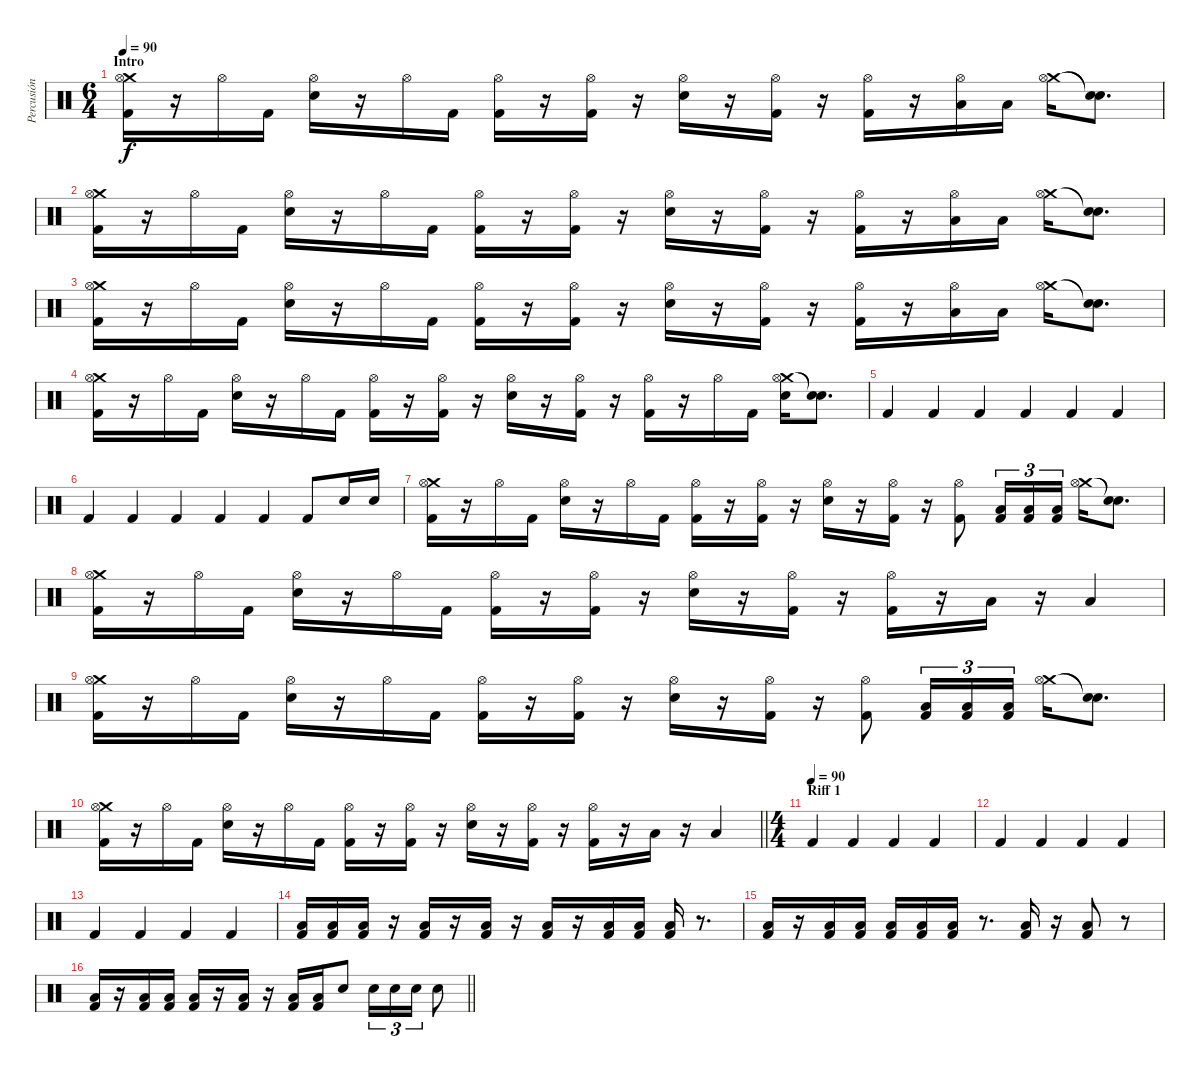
\track ("Percusión" "Percusión") {instrument percussion}
\staff {score}
\articulation defaults
\ts (6 4)
\section ("" "Intro")
\tempo 90
\clef neutral
\ks c
("Crash medium (hit)" "Hi-Hat (open)" "Kick (hit) 2").16{dy f} r.16 "Hi-Hat (open)".16 "Kick (hit) 2".16 ("Hi-Hat (open)" "Electric Snare (hit)").16 r.16 "Hi-Hat (open)".16 "Kick (hit) 2".16 ("Hi-Hat (open)" "Kick (hit) 2").16 r.16 ("Hi-Hat (open)" "Kick (hit) 2").16 r.16 ("Hi-Hat (open)" "Electric Snare (hit)").16 r.16 ("Hi-Hat (open)" "Kick (hit) 2").16 r.16 ("Hi-Hat (open)" "Kick (hit) 2").16 r.16 ("Hi-Hat (open)" "Low Tom (hit)").16 "Low Tom (hit)".16 ("Crash medium (hit)" "Hi-Hat (open)").16 ("Snare (hit)"{t} "Snare (hit)"{t}).8{d} |
("Crash medium (hit)" "Hi-Hat (open)" "Kick (hit) 2").16 r.16 "Hi-Hat (open)".16 "Kick (hit) 2".16 ("Hi-Hat (open)" "Electric Snare (hit)").16 r.16 "Hi-Hat (open)".16 "Kick (hit) 2".16 ("Hi-Hat (open)" "Kick (hit) 2").16 r.16 ("Hi-Hat (open)" "Kick (hit) 2").16 r.16 ("Hi-Hat (open)" "Electric Snare (hit)").16 r.16 ("Hi-Hat (open)" "Kick (hit) 2").16 r.16 ("Hi-Hat (open)" "Kick (hit) 2").16 r.16 ("Hi-Hat (open)" "Low Tom (hit)").16 "Low Tom (hit)".16 ("Crash medium (hit)" "Hi-Hat (open)").16 ("Snare (hit)"{t} "Snare (hit)"{t}).8{d} |
("Crash medium (hit)" "Hi-Hat (open)" "Kick (hit) 2").16 r.16 "Hi-Hat (open)".16 "Kick (hit) 2".16 ("Hi-Hat (open)" "Electric Snare (hit)").16 r.16 "Hi-Hat (open)".16 "Kick (hit) 2".16 ("Hi-Hat (open)" "Kick (hit) 2").16 r.16 ("Hi-Hat (open)" "Kick (hit) 2").16 r.16 ("Hi-Hat (open)" "Electric Snare (hit)").16 r.16 ("Hi-Hat (open)" "Kick (hit) 2").16 r.16 ("Hi-Hat (open)" "Kick (hit) 2").16 r.16 ("Hi-Hat (open)" "Low Tom (hit)").16 "Low Tom (hit)".16 ("Crash medium (hit)" "Hi-Hat (open)").16 ("Snare (hit)"{t} "Snare (hit)"{t}).8{d} |
("Crash medium (hit)" "Hi-Hat (open)" "Kick (hit) 2").16 r.16 "Hi-Hat (open)".16 "Kick (hit) 2".16 ("Hi-Hat (open)" "Electric Snare (hit)").16 r.16 "Hi-Hat (open)".16 "Kick (hit) 2".16 ("Hi-Hat (open)" "Kick (hit) 2").16 r.16 ("Hi-Hat (open)" "Kick (hit) 2").16 r.16 ("Hi-Hat (open)" "Electric Snare (hit)").16 r.16 ("Hi-Hat (open)" "Kick (hit) 2").16 r.16 ("Hi-Hat (open)" "Kick (hit) 2").16 r.16 "Hi-Hat (open)".16 "Kick (hit) 2".16 ("Crash medium (hit)" "Hi-Hat (open)" "Electric Snare (hit)").16 ("Snare (hit)"{t} "Snare (hit)"{t}).8{d} |
"Kick (hit) 2".4 "Kick (hit) 2".4 "Kick (hit) 2".4 "Kick (hit) 2".4 "Kick (hit) 2".4 "Kick (hit) 2".4 |
"Kick (hit) 2".4 "Kick (hit) 2".4 "Kick (hit) 2".4 "Kick (hit) 2".4 "Kick (hit) 2".4 "Kick (hit) 2".8 "Electric Snare (hit)".16 "Electric Snare (hit)".16 |
("Crash medium (hit)" "Hi-Hat (open)" "Kick (hit) 2").16 r.16 "Hi-Hat (open)".16 "Kick (hit) 2".16 ("Hi-Hat (open)" "Electric Snare (hit)").16 r.16 "Hi-Hat (open)".16 "Kick (hit) 2".16 ("Hi-Hat (open)" "Kick (hit) 2").16 r.16 ("Hi-Hat (open)" "Kick (hit) 2").16 r.16 ("Hi-Hat (open)" "Electric Snare (hit)").16 r.16 ("Hi-Hat (open)" "Kick (hit) 2").16 r.16 ("Hi-Hat (open)" "Kick (hit) 2").8 ("Low Tom (hit)" "Kick (hit) 2").16{tu (3 2)} ("Low Tom (hit)" "Kick (hit) 2").16{tu (3 2)} ("Low Tom (hit)" "Kick (hit) 2").16{tu (3 2) beam splitsecondary} ("Crash medium (hit)" "Hi-Hat (open)").16 ("Snare (hit)"{t} "Snare (hit)"{t}).8{d} |
("Crash medium (hit)" "Hi-Hat (open)" "Kick (hit) 2").16 r.16 "Hi-Hat (open)".16 "Kick (hit) 2".16 ("Hi-Hat (open)" "Electric Snare (hit)").16 r.16 "Hi-Hat (open)".16 "Kick (hit) 2".16 ("Hi-Hat (open)" "Kick (hit) 2").16 r.16 ("Hi-Hat (open)" "Kick (hit) 2").16 r.16 ("Hi-Hat (open)" "Electric Snare (hit)").16 r.16 ("Hi-Hat (open)" "Kick (hit) 2").16 r.16 ("Hi-Hat (open)" "Kick (hit) 2").16 r.16 "Low Tom (hit)".16 r.16 "Low Tom (hit)".4 |
("Crash medium (hit)" "Hi-Hat (open)" "Kick (hit) 2").16 r.16 "Hi-Hat (open)".16 "Kick (hit) 2".16 ("Hi-Hat (open)" "Electric Snare (hit)").16 r.16 "Hi-Hat (open)".16 "Kick (hit) 2".16 ("Hi-Hat (open)" "Kick (hit) 2").16 r.16 ("Hi-Hat (open)" "Kick (hit) 2").16 r.16 ("Hi-Hat (open)" "Electric Snare (hit)").16 r.16 ("Hi-Hat (open)" "Kick (hit) 2").16 r.16 ("Hi-Hat (open)" "Kick (hit) 2").8 ("Low Tom (hit)" "Kick (hit) 2").16{tu (3 2)} ("Low Tom (hit)" "Kick (hit) 2").16{tu (3 2)} ("Low Tom (hit)" "Kick (hit) 2").16{tu (3 2) beam splitsecondary} ("Crash medium (hit)" "Hi-Hat (open)").16 ("Snare (hit)"{t} "Snare (hit)"{t}).8{d} |
\barLineRight lightlight
("Crash medium (hit)" "Hi-Hat (open)" "Kick (hit) 2").16 r.16 "Hi-Hat (open)".16 "Kick (hit) 2".16 ("Hi-Hat (open)" "Electric Snare (hit)").16 r.16 "Hi-Hat (open)".16 "Kick (hit) 2".16 ("Hi-Hat (open)" "Kick (hit) 2").16 r.16 ("Hi-Hat (open)" "Kick (hit) 2").16 r.16 ("Hi-Hat (open)" "Electric Snare (hit)").16 r.16 ("Hi-Hat (open)" "Kick (hit) 2").16 r.16 ("Hi-Hat (open)" "Kick (hit) 2").16 r.16 "Low Tom (hit)".16 r.16 "Low Tom (hit)".4 |
\ts (4 4)
\section ("" "Riff 1")
\tempo (90)
"Kick (hit) 2".4{volume 12} "Kick (hit) 2".4 "Kick (hit) 2".4 "Kick (hit) 2".4 |
"Kick (hit) 2".4 "Kick (hit) 2".4 "Kick (hit) 2".4 "Kick (hit) 2".4 |
"Kick (hit) 2".4 "Kick (hit) 2".4 "Kick (hit) 2".4 "Kick (hit) 2".4 |
("Low Tom (hit)" "Kick (hit) 2").16{volume 11} ("Low Tom (hit)" "Kick (hit) 2").16 ("Low Tom (hit)" "Kick (hit) 2").16 r.16 ("Low Tom (hit)" "Kick (hit) 2").16 r.16 ("Low Tom (hit)" "Kick (hit) 2").16 r.16 ("Low Tom (hit)" "Kick (hit) 2").16 r.16 ("Low Tom (hit)" "Kick (hit) 2").16 ("Low Tom (hit)" "Kick (hit) 2").16 ("Low Tom (hit)" "Kick (hit) 2").16 r.8{d} |
("Low Tom (hit)" "Kick (hit) 2").16 r.16 ("Low Tom (hit)" "Kick (hit) 2").16 ("Low Tom (hit)" "Kick (hit) 2").16 ("Low Tom (hit)" "Kick (hit) 2").16 ("Low Tom (hit)" "Kick (hit) 2").16 ("Low Tom (hit)" "Kick (hit) 2").16 r.8{d} ("Low Tom (hit)" "Kick (hit) 2").16 r.16 ("Low Tom (hit)" "Kick (hit) 2").8 r.8 |
\barLineRight lightlight
("Low Tom (hit)" "Kick (hit) 2").16 r.16 ("Low Tom (hit)" "Kick (hit) 2").16 ("Low Tom (hit)" "Kick (hit) 2").16 ("Low Tom (hit)" "Kick (hit) 2").16 r.16 ("Low Tom (hit)" "Kick (hit) 2").16 r.16 ("Low Tom (hit)" "Kick (hit) 2").16 ("Low Tom (hit)" "Kick (hit) 2").16 "Electric Snare (hit)".8{volume 16} "Electric Snare (hit)".16{tu (3 2)} "Electric Snare (hit)".16{tu (3 2)} "Electric Snare (hit)".16{tu (3 2)} "Electric Snare (hit)".8
